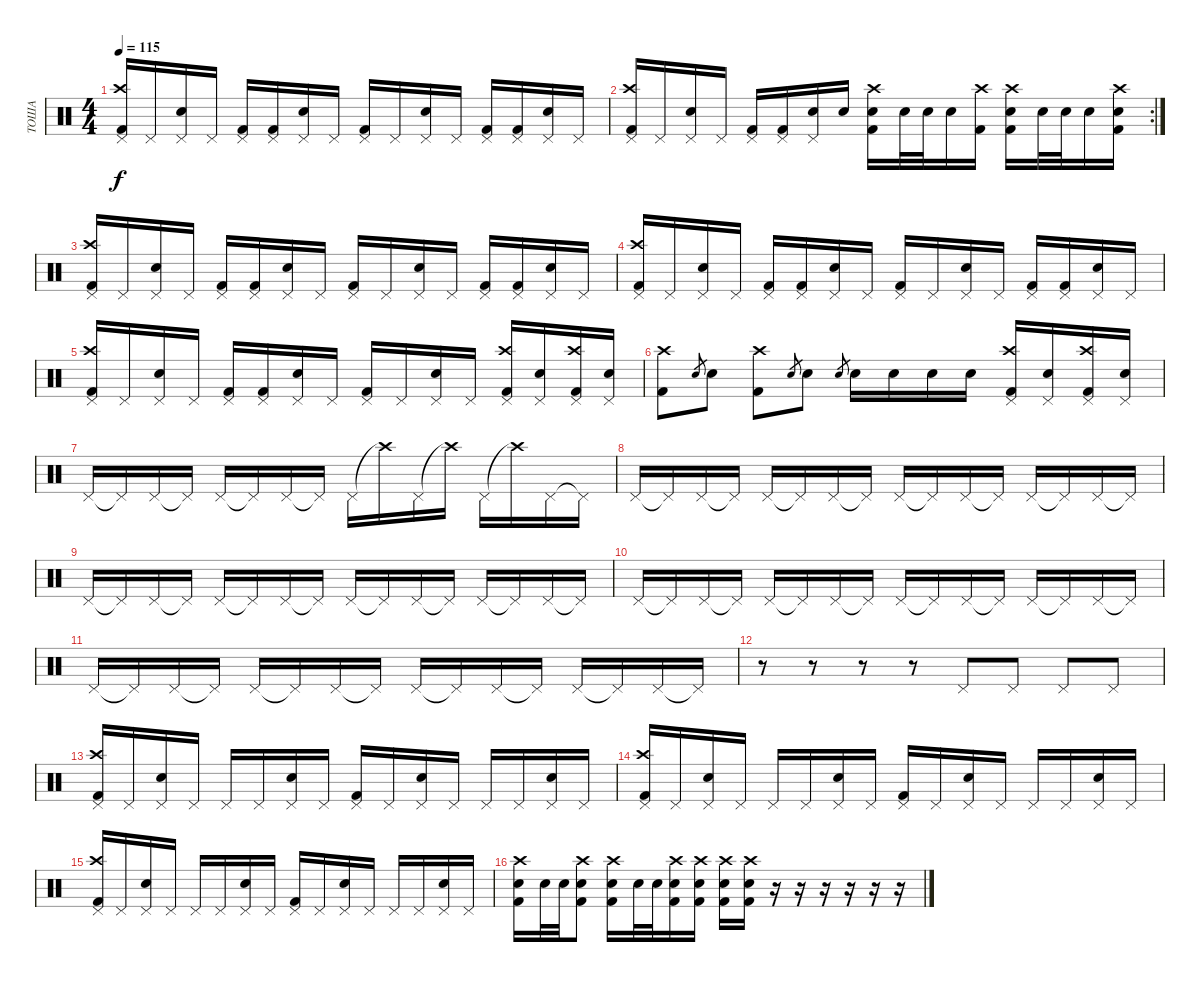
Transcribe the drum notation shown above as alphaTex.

\track ("ТОША" "ТОША") {instrument percussion}
\staff {score}
\articulation defaults
\ts (4 4)
\tempo 115
\clef neutral
\ks c
("Pedal Hi-Hat (hit)" "Crash high (hit)" "Kick (hit) 2").16{dy f} "Pedal Hi-Hat (hit)".16 ("Pedal Hi-Hat (hit)" "Electric Snare (hit)").16 "Pedal Hi-Hat (hit)".16 ("Pedal Hi-Hat (hit)" "Kick (hit) 2").16 ("Pedal Hi-Hat (hit)" "Kick (hit) 2").16 ("Pedal Hi-Hat (hit)" "Electric Snare (hit)").16 "Pedal Hi-Hat (hit)".16 ("Pedal Hi-Hat (hit)" "Kick (hit) 2").16 "Pedal Hi-Hat (hit)".16 ("Pedal Hi-Hat (hit)" "Electric Snare (hit)").16 "Pedal Hi-Hat (hit)".16 ("Pedal Hi-Hat (hit)" "Kick (hit) 2").16 ("Pedal Hi-Hat (hit)" "Kick (hit) 2").16 ("Pedal Hi-Hat (hit)" "Electric Snare (hit)").16 "Pedal Hi-Hat (hit)".16 |
\rc 2
("Crash high (hit)" "Pedal Hi-Hat (hit)" "Kick (hit) 2").16 "Pedal Hi-Hat (hit)".16 ("Pedal Hi-Hat (hit)" "Electric Snare (hit)").16 "Pedal Hi-Hat (hit)".16 ("Pedal Hi-Hat (hit)" "Kick (hit) 2").16 ("Pedal Hi-Hat (hit)" "Kick (hit) 2").16 ("Pedal Hi-Hat (hit)" "Electric Snare (hit)").16 "Electric Snare (hit)".16 ("Crash high (hit)" "Electric Snare (hit)" "Kick (hit) 2").16 "Electric Snare (hit)".32 "Electric Snare (hit)".32 "Electric Snare (hit)".16 ("Crash high (hit)" "Kick (hit) 2").16 ("Crash high (hit)" "Electric Snare (hit)" "Kick (hit) 2").16 "Electric Snare (hit)".32 "Electric Snare (hit)".32 "Electric Snare (hit)".16 ("Crash high (hit)" "Electric Snare (hit)" "Kick (hit) 2").16 |
("Pedal Hi-Hat (hit)" "Crash high (hit)" "Kick (hit) 2").16 "Pedal Hi-Hat (hit)".16 ("Pedal Hi-Hat (hit)" "Electric Snare (hit)").16 "Pedal Hi-Hat (hit)".16 ("Pedal Hi-Hat (hit)" "Kick (hit) 2").16 ("Pedal Hi-Hat (hit)" "Kick (hit) 2").16 ("Pedal Hi-Hat (hit)" "Electric Snare (hit)").16 "Pedal Hi-Hat (hit)".16 ("Pedal Hi-Hat (hit)" "Kick (hit) 2").16 "Pedal Hi-Hat (hit)".16 ("Pedal Hi-Hat (hit)" "Electric Snare (hit)").16 "Pedal Hi-Hat (hit)".16 ("Pedal Hi-Hat (hit)" "Kick (hit) 2").16 ("Pedal Hi-Hat (hit)" "Kick (hit) 2").16 ("Pedal Hi-Hat (hit)" "Electric Snare (hit)").16 "Pedal Hi-Hat (hit)".16 |
("Pedal Hi-Hat (hit)" "Crash high (hit)" "Kick (hit) 2").16 "Pedal Hi-Hat (hit)".16 ("Pedal Hi-Hat (hit)" "Electric Snare (hit)").16 "Pedal Hi-Hat (hit)".16 ("Pedal Hi-Hat (hit)" "Kick (hit) 2").16 ("Pedal Hi-Hat (hit)" "Kick (hit) 2").16 ("Pedal Hi-Hat (hit)" "Electric Snare (hit)").16 "Pedal Hi-Hat (hit)".16 ("Pedal Hi-Hat (hit)" "Kick (hit) 2").16 "Pedal Hi-Hat (hit)".16 ("Pedal Hi-Hat (hit)" "Electric Snare (hit)").16 "Pedal Hi-Hat (hit)".16 ("Pedal Hi-Hat (hit)" "Kick (hit) 2").16 ("Pedal Hi-Hat (hit)" "Kick (hit) 2").16 ("Pedal Hi-Hat (hit)" "Electric Snare (hit)").16 "Pedal Hi-Hat (hit)".16 |
("Pedal Hi-Hat (hit)" "Crash high (hit)" "Kick (hit) 2").16 "Pedal Hi-Hat (hit)".16 ("Pedal Hi-Hat (hit)" "Electric Snare (hit)").16 "Pedal Hi-Hat (hit)".16 ("Pedal Hi-Hat (hit)" "Kick (hit) 2").16 ("Pedal Hi-Hat (hit)" "Kick (hit) 2").16 ("Pedal Hi-Hat (hit)" "Electric Snare (hit)").16 "Pedal Hi-Hat (hit)".16 ("Pedal Hi-Hat (hit)" "Kick (hit) 2").16 "Pedal Hi-Hat (hit)".16 ("Pedal Hi-Hat (hit)" "Electric Snare (hit)").16 "Pedal Hi-Hat (hit)".16 ("Pedal Hi-Hat (hit)" "Crash high (hit)" "Kick (hit) 2").16 ("Pedal Hi-Hat (hit)" "Electric Snare (hit)").16 ("Pedal Hi-Hat (hit)" "Crash high (hit)" "Kick (hit) 2").16 ("Pedal Hi-Hat (hit)" "Electric Snare (hit)").16 |
("Kick (hit) 2" "Crash high (hit)").8 "Electric Snare (hit)".8{gr} "Electric Snare (hit)".8 ("Kick (hit) 2" "Crash high (hit)").8 "Electric Snare (hit)".8{gr} "Electric Snare (hit)".8 "Electric Snare (hit)".8{gr} "Electric Snare (hit)".16 "Electric Snare (hit)".16 "Electric Snare (hit)".16 "Electric Snare (hit)".16 ("Pedal Hi-Hat (hit)" "Crash high (hit)" "Kick (hit) 2").16 ("Pedal Hi-Hat (hit)" "Electric Snare (hit)").16 ("Pedal Hi-Hat (hit)" "Crash high (hit)" "Kick (hit) 2").16 ("Pedal Hi-Hat (hit)" "Electric Snare (hit)").16 |
"Pedal Hi-Hat (hit)".16 "Pedal Hi-Hat (hit)"{t}.16 "Pedal Hi-Hat (hit)".16 "Pedal Hi-Hat (hit)"{t}.16 "Pedal Hi-Hat (hit)".16 "Pedal Hi-Hat (hit)"{t}.16 "Pedal Hi-Hat (hit)".16 "Pedal Hi-Hat (hit)"{t}.16 "Pedal Hi-Hat (hit)".16 "Crash high (hit)"{t}.16 "Pedal Hi-Hat (hit)".16 "Crash high (hit)"{t}.16 "Pedal Hi-Hat (hit)".16 "Crash high (hit)"{t}.16 "Pedal Hi-Hat (hit)".16 "Pedal Hi-Hat (hit)"{t}.16 |
"Pedal Hi-Hat (hit)".16 "Pedal Hi-Hat (hit)"{t}.16 "Pedal Hi-Hat (hit)".16 "Pedal Hi-Hat (hit)"{t}.16 "Pedal Hi-Hat (hit)".16 "Pedal Hi-Hat (hit)"{t}.16 "Pedal Hi-Hat (hit)".16 "Pedal Hi-Hat (hit)"{t}.16 "Pedal Hi-Hat (hit)".16 "Pedal Hi-Hat (hit)"{t}.16 "Pedal Hi-Hat (hit)".16 "Pedal Hi-Hat (hit)"{t}.16 "Pedal Hi-Hat (hit)".16 "Pedal Hi-Hat (hit)"{t}.16 "Pedal Hi-Hat (hit)".16 "Pedal Hi-Hat (hit)"{t}.16 |
"Pedal Hi-Hat (hit)".16 "Pedal Hi-Hat (hit)"{t}.16 "Pedal Hi-Hat (hit)".16 "Pedal Hi-Hat (hit)"{t}.16 "Pedal Hi-Hat (hit)".16 "Pedal Hi-Hat (hit)"{t}.16 "Pedal Hi-Hat (hit)".16 "Pedal Hi-Hat (hit)"{t}.16 "Pedal Hi-Hat (hit)".16 "Pedal Hi-Hat (hit)"{t}.16 "Pedal Hi-Hat (hit)".16 "Pedal Hi-Hat (hit)"{t}.16 "Pedal Hi-Hat (hit)".16 "Pedal Hi-Hat (hit)"{t}.16 "Pedal Hi-Hat (hit)".16 "Pedal Hi-Hat (hit)"{t}.16 |
"Pedal Hi-Hat (hit)".16 "Pedal Hi-Hat (hit)"{t}.16 "Pedal Hi-Hat (hit)".16 "Pedal Hi-Hat (hit)"{t}.16 "Pedal Hi-Hat (hit)".16 "Pedal Hi-Hat (hit)"{t}.16 "Pedal Hi-Hat (hit)".16 "Pedal Hi-Hat (hit)"{t}.16 "Pedal Hi-Hat (hit)".16 "Pedal Hi-Hat (hit)"{t}.16 "Pedal Hi-Hat (hit)".16 "Pedal Hi-Hat (hit)"{t}.16 "Pedal Hi-Hat (hit)".16 "Pedal Hi-Hat (hit)"{t}.16 "Pedal Hi-Hat (hit)".16 "Pedal Hi-Hat (hit)"{t}.16 |
"Pedal Hi-Hat (hit)".16 "Pedal Hi-Hat (hit)"{t}.16 "Pedal Hi-Hat (hit)".16 "Pedal Hi-Hat (hit)"{t}.16 "Pedal Hi-Hat (hit)".16 "Pedal Hi-Hat (hit)"{t}.16 "Pedal Hi-Hat (hit)".16 "Pedal Hi-Hat (hit)"{t}.16 "Pedal Hi-Hat (hit)".16 "Pedal Hi-Hat (hit)"{t}.16 "Pedal Hi-Hat (hit)".16 "Pedal Hi-Hat (hit)"{t}.16 "Pedal Hi-Hat (hit)".16 "Pedal Hi-Hat (hit)"{t}.16 "Pedal Hi-Hat (hit)".16 "Pedal Hi-Hat (hit)"{t}.16 |
r.8 r.8 r.8 r.8 "Pedal Hi-Hat (hit)".8 "Pedal Hi-Hat (hit)".8 "Pedal Hi-Hat (hit)".8 "Pedal Hi-Hat (hit)".8 |
("Pedal Hi-Hat (hit)" "Crash high (hit)" "Kick (hit) 2").16 "Pedal Hi-Hat (hit)".16 ("Pedal Hi-Hat (hit)" "Electric Snare (hit)").16 "Pedal Hi-Hat (hit)".16 "Pedal Hi-Hat (hit)".16 "Pedal Hi-Hat (hit)".16 ("Pedal Hi-Hat (hit)" "Electric Snare (hit)").16 "Pedal Hi-Hat (hit)".16 ("Pedal Hi-Hat (hit)" "Kick (hit) 2").16 "Pedal Hi-Hat (hit)".16 ("Pedal Hi-Hat (hit)" "Electric Snare (hit)").16 "Pedal Hi-Hat (hit)".16 "Pedal Hi-Hat (hit)".16 "Pedal Hi-Hat (hit)".16 ("Pedal Hi-Hat (hit)" "Electric Snare (hit)").16 "Pedal Hi-Hat (hit)".16 |
("Pedal Hi-Hat (hit)" "Crash high (hit)" "Kick (hit) 2").16 "Pedal Hi-Hat (hit)".16 ("Pedal Hi-Hat (hit)" "Electric Snare (hit)").16 "Pedal Hi-Hat (hit)".16 "Pedal Hi-Hat (hit)".16 "Pedal Hi-Hat (hit)".16 ("Pedal Hi-Hat (hit)" "Electric Snare (hit)").16 "Pedal Hi-Hat (hit)".16 ("Pedal Hi-Hat (hit)" "Kick (hit) 2").16 "Pedal Hi-Hat (hit)".16 ("Pedal Hi-Hat (hit)" "Electric Snare (hit)").16 "Pedal Hi-Hat (hit)".16 "Pedal Hi-Hat (hit)".16 "Pedal Hi-Hat (hit)".16 ("Pedal Hi-Hat (hit)" "Electric Snare (hit)").16 "Pedal Hi-Hat (hit)".16 |
("Pedal Hi-Hat (hit)" "Crash high (hit)" "Kick (hit) 2").16 "Pedal Hi-Hat (hit)".16 ("Pedal Hi-Hat (hit)" "Electric Snare (hit)").16 "Pedal Hi-Hat (hit)".16 "Pedal Hi-Hat (hit)".16 "Pedal Hi-Hat (hit)".16 ("Pedal Hi-Hat (hit)" "Electric Snare (hit)").16 "Pedal Hi-Hat (hit)".16 ("Pedal Hi-Hat (hit)" "Kick (hit) 2").16 "Pedal Hi-Hat (hit)".16 ("Pedal Hi-Hat (hit)" "Electric Snare (hit)").16 "Pedal Hi-Hat (hit)".16 "Pedal Hi-Hat (hit)".16 "Pedal Hi-Hat (hit)".16 ("Pedal Hi-Hat (hit)" "Electric Snare (hit)").16 "Pedal Hi-Hat (hit)".16 |
("Crash high (hit)" "Electric Snare (hit)" "Kick (hit) 2").16 "Electric Snare (hit)".32 "Electric Snare (hit)".32 ("Crash high (hit)" "Electric Snare (hit)" "Kick (hit) 2").8 ("Crash high (hit)" "Electric Snare (hit)" "Kick (hit) 2").16 "Electric Snare (hit)".32 "Electric Snare (hit)".32 ("Crash high (hit)" "Electric Snare (hit)" "Kick (hit) 2").16 ("Crash high (hit)" "Electric Snare (hit)" "Kick (hit) 2").16 ("Crash high (hit)" "Electric Snare (hit)" "Kick (hit) 2").16 ("Crash high (hit)" "Electric Snare (hit)" "Kick (hit) 2").16 r.16 r.16 r.16 r.16 r.16 r.16
